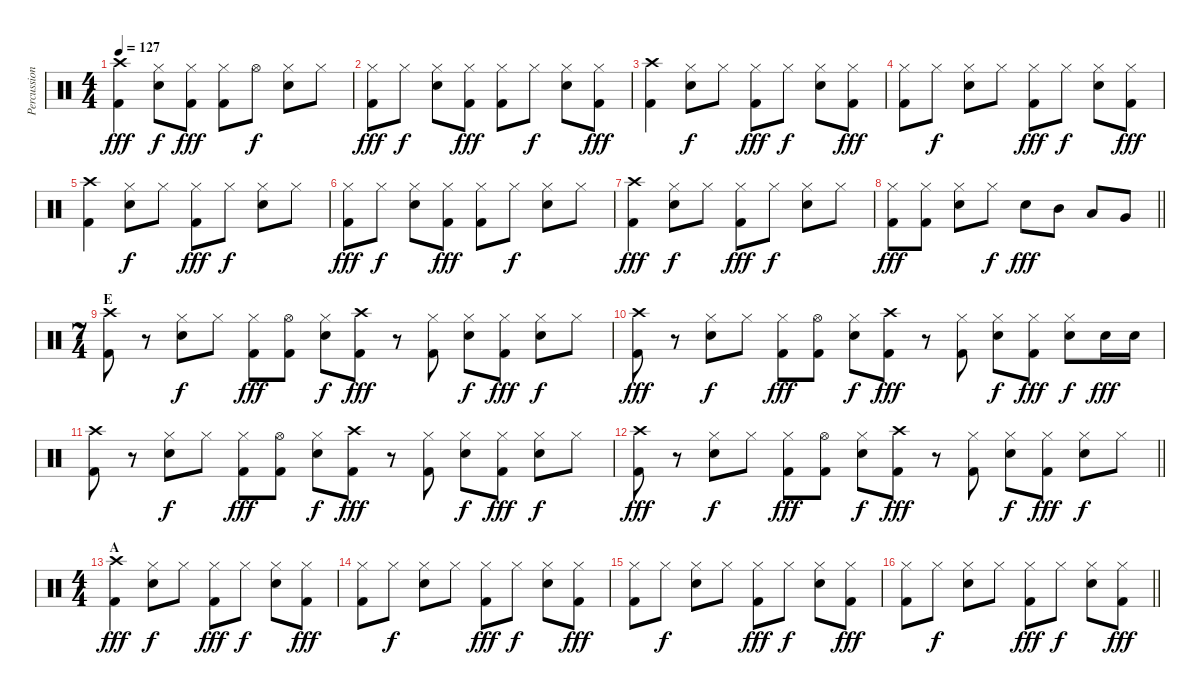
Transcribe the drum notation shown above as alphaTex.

\track ("Percussion" "Percussion") {instrument percussion}
\staff {score}
\articulation defaults
\ts (4 4)
\tempo 127
\clef neutral
\ks c
("Crash high (hit)" "Kick (hit) 2").4{dy fff} ("Hi-Hat (closed)" "Electric Snare (hit)").8{dy f} ("Hi-Hat (closed)" "Kick (hit) 2").8{dy fff} ("Hi-Hat (closed)" "Kick (hit) 2").8 "Hi-Hat (open)".8{dy f} ("Hi-Hat (closed)" "Electric Snare (hit)").8 "Hi-Hat (closed)".8 |
("Hi-Hat (closed)" "Kick (hit) 2").8{dy fff} "Hi-Hat (closed)".8{dy f} ("Hi-Hat (closed)" "Electric Snare (hit)").8 ("Hi-Hat (closed)" "Kick (hit) 2").8{dy fff} ("Hi-Hat (closed)" "Kick (hit) 2").8 "Hi-Hat (closed)".8{dy f} ("Hi-Hat (closed)" "Electric Snare (hit)").8 ("Hi-Hat (closed)" "Kick (hit) 2").8{dy fff} |
("Crash high (hit)" "Kick (hit) 2").4 ("Hi-Hat (closed)" "Electric Snare (hit)").8{dy f} "Hi-Hat (closed)".8 ("Hi-Hat (closed)" "Kick (hit) 2").8{dy fff} "Hi-Hat (closed)".8{dy f} ("Hi-Hat (closed)" "Electric Snare (hit)").8 ("Hi-Hat (closed)" "Kick (hit) 2").8{dy fff} |
("Hi-Hat (closed)" "Kick (hit) 2").8 "Hi-Hat (closed)".8{dy f} ("Hi-Hat (closed)" "Electric Snare (hit)").8 "Hi-Hat (closed)".8 ("Hi-Hat (closed)" "Kick (hit) 2").8{dy fff} "Hi-Hat (closed)".8{dy f} ("Hi-Hat (closed)" "Electric Snare (hit)").8 ("Hi-Hat (closed)" "Kick (hit) 2").8{dy fff} |
("Crash high (hit)" "Kick (hit) 2").4 ("Hi-Hat (closed)" "Electric Snare (hit)").8{dy f} "Hi-Hat (closed)".8 ("Hi-Hat (closed)" "Kick (hit) 2").8{dy fff} "Hi-Hat (closed)".8{dy f} ("Hi-Hat (closed)" "Electric Snare (hit)").8 "Hi-Hat (closed)".8 |
("Hi-Hat (closed)" "Kick (hit) 2").8{dy fff} "Hi-Hat (closed)".8{dy f} ("Hi-Hat (closed)" "Electric Snare (hit)").8 ("Hi-Hat (closed)" "Kick (hit) 2").8{dy fff} ("Hi-Hat (closed)" "Kick (hit) 2").8 "Hi-Hat (closed)".8{dy f} ("Hi-Hat (closed)" "Electric Snare (hit)").8 "Hi-Hat (closed)".8 |
("Crash high (hit)" "Kick (hit) 2").4{dy fff} ("Hi-Hat (closed)" "Electric Snare (hit)").8{dy f} "Hi-Hat (closed)".8 ("Hi-Hat (closed)" "Kick (hit) 2").8{dy fff} "Hi-Hat (closed)".8{dy f} ("Hi-Hat (closed)" "Electric Snare (hit)").8 "Hi-Hat (closed)".8 |
\barLineRight lightlight
("Hi-Hat (closed)" "Kick (hit) 2").8{dy fff} ("Hi-Hat (closed)" "Kick (hit) 2").8 ("Hi-Hat (closed)" "Electric Snare (hit)").8 "Hi-Hat (closed)".8{dy f} "Electric Snare (hit)".8{dy fff} "Mid Tom (hit)".8 "Low Tom (hit)".8 "Very Low Tom (hit)".8 |
\ts (7 4)
\section ("" "E")
("Crash high (hit)" "Kick (hit) 2").8 r.8 ("Hi-Hat (closed)" "Electric Snare (hit)").8{dy f} "Hi-Hat (closed)".8 ("Hi-Hat (closed)" "Kick (hit) 2").8{dy fff} ("Hi-Hat (open)" "Kick (hit) 2").8 ("Hi-Hat (closed)" "Electric Snare (hit)").8{dy f} ("Crash high (hit)" "Kick (hit) 2").8{dy fff} r.8 ("Hi-Hat (closed)" "Kick (hit) 2").8 ("Hi-Hat (closed)" "Electric Snare (hit)").8{dy f} ("Hi-Hat (closed)" "Kick (hit) 2").8{dy fff} ("Hi-Hat (closed)" "Electric Snare (hit)").8{dy f} "Hi-Hat (closed)".8 |
("Crash high (hit)" "Kick (hit) 2").8{dy fff} r.8 ("Hi-Hat (closed)" "Electric Snare (hit)").8{dy f} "Hi-Hat (closed)".8 ("Hi-Hat (closed)" "Kick (hit) 2").8{dy fff} ("Hi-Hat (open)" "Kick (hit) 2").8 ("Hi-Hat (closed)" "Electric Snare (hit)").8{dy f} ("Crash high (hit)" "Kick (hit) 2").8{dy fff} r.8 ("Hi-Hat (closed)" "Kick (hit) 2").8 ("Hi-Hat (closed)" "Electric Snare (hit)").8{dy f} ("Hi-Hat (closed)" "Kick (hit) 2").8{dy fff} ("Hi-Hat (closed)" "Electric Snare (hit)").8{dy f} "Electric Snare (hit)".16{dy fff} "Electric Snare (hit)".16 |
("Crash high (hit)" "Kick (hit) 2").8 r.8 ("Hi-Hat (closed)" "Electric Snare (hit)").8{dy f} "Hi-Hat (closed)".8 ("Hi-Hat (closed)" "Kick (hit) 2").8{dy fff} ("Hi-Hat (open)" "Kick (hit) 2").8 ("Hi-Hat (closed)" "Electric Snare (hit)").8{dy f} ("Crash high (hit)" "Kick (hit) 2").8{dy fff} r.8 ("Hi-Hat (closed)" "Kick (hit) 2").8 ("Hi-Hat (closed)" "Electric Snare (hit)").8{dy f} ("Hi-Hat (closed)" "Kick (hit) 2").8{dy fff} ("Hi-Hat (closed)" "Electric Snare (hit)").8{dy f} "Hi-Hat (closed)".8 |
\barLineRight lightlight
("Crash high (hit)" "Kick (hit) 2").8{dy fff} r.8 ("Hi-Hat (closed)" "Electric Snare (hit)").8{dy f} "Hi-Hat (closed)".8 ("Hi-Hat (closed)" "Kick (hit) 2").8{dy fff} ("Hi-Hat (open)" "Kick (hit) 2").8 ("Hi-Hat (closed)" "Electric Snare (hit)").8{dy f} ("Crash high (hit)" "Kick (hit) 2").8{dy fff} r.8 ("Hi-Hat (closed)" "Kick (hit) 2").8 ("Hi-Hat (closed)" "Electric Snare (hit)").8{dy f} ("Hi-Hat (closed)" "Kick (hit) 2").8{dy fff} ("Hi-Hat (closed)" "Electric Snare (hit)").8{dy f} "Hi-Hat (closed)".8 |
\ts (4 4)
\section ("" "A")
("Crash high (hit)" "Kick (hit) 2").4{dy fff} ("Hi-Hat (closed)" "Electric Snare (hit)").8{dy f} "Hi-Hat (closed)".8 ("Hi-Hat (closed)" "Kick (hit) 2").8{dy fff} "Hi-Hat (closed)".8{dy f} ("Hi-Hat (closed)" "Electric Snare (hit)").8 ("Hi-Hat (closed)" "Kick (hit) 2").8{dy fff} |
("Hi-Hat (closed)" "Kick (hit) 2").8 "Hi-Hat (closed)".8{dy f} ("Hi-Hat (closed)" "Electric Snare (hit)").8 "Hi-Hat (closed)".8 ("Hi-Hat (closed)" "Kick (hit) 2").8{dy fff} "Hi-Hat (closed)".8{dy f} ("Hi-Hat (closed)" "Electric Snare (hit)").8 ("Hi-Hat (closed)" "Kick (hit) 2").8{dy fff} |
("Hi-Hat (closed)" "Kick (hit) 2").8 "Hi-Hat (closed)".8{dy f} ("Hi-Hat (closed)" "Electric Snare (hit)").8 "Hi-Hat (closed)".8 ("Hi-Hat (closed)" "Kick (hit) 2").8{dy fff} "Hi-Hat (closed)".8{dy f} ("Hi-Hat (closed)" "Electric Snare (hit)").8 ("Hi-Hat (closed)" "Kick (hit) 2").8{dy fff} |
\barLineRight lightlight
("Hi-Hat (closed)" "Kick (hit) 2").8 "Hi-Hat (closed)".8{dy f} ("Hi-Hat (closed)" "Electric Snare (hit)").8 "Hi-Hat (closed)".8 ("Hi-Hat (closed)" "Kick (hit) 2").8{dy fff} "Hi-Hat (closed)".8{dy f} ("Hi-Hat (closed)" "Electric Snare (hit)").8 ("Hi-Hat (closed)" "Kick (hit) 2").8{dy fff}
